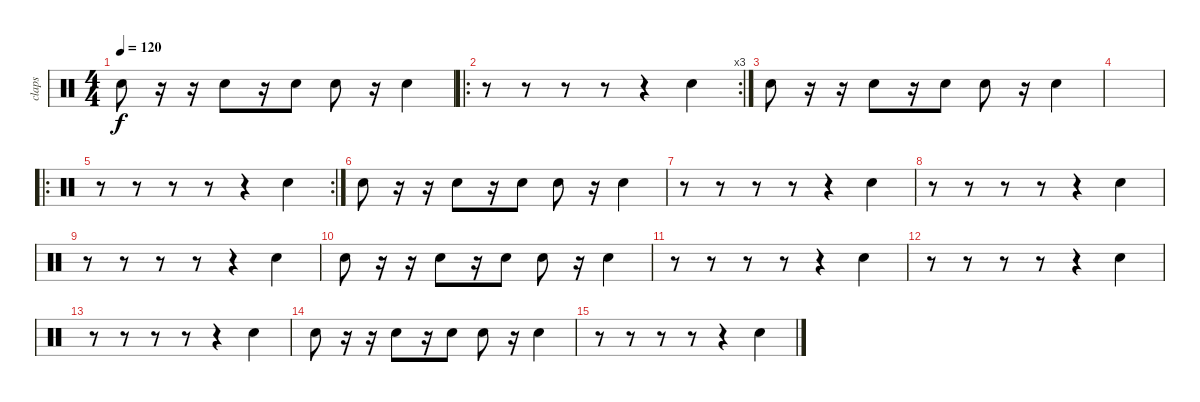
\track ("claps" "claps") {instrument percussion}
\staff {score}
\articulation defaults
\ts (4 4)
\tempo 120
\clef neutral
\ks c "Hand Clap (hit)".8{dy f}
r.16 r.16 "Hand Clap (hit)".8 r.16 "Hand Clap (hit)".8 "Hand Clap (hit)".8 r.16 "Hand Clap (hit)".4 |
\ro
\rc 3
r.8 r.8 r.8 r.8 r.4 "Hand Clap (hit)".4 |
"Hand Clap (hit)".8 r.16 r.16 "Hand Clap (hit)".8 r.16 "Hand Clap (hit)".8 "Hand Clap (hit)".8 r.16 "Hand Clap (hit)".4 |
|
\ro
\rc 2
r.8 r.8 r.8 r.8 r.4 "Hand Clap (hit)".4 |
"Hand Clap (hit)".8 r.16 r.16 "Hand Clap (hit)".8 r.16 "Hand Clap (hit)".8 "Hand Clap (hit)".8 r.16 "Hand Clap (hit)".4 |
r.8 r.8 r.8 r.8 r.4 "Hand Clap (hit)".4 |
r.8 r.8 r.8 r.8 r.4 "Hand Clap (hit)".4 |
r.8 r.8 r.8 r.8 r.4 "Hand Clap (hit)".4 |
"Hand Clap (hit)".8 r.16 r.16 "Hand Clap (hit)".8 r.16 "Hand Clap (hit)".8 "Hand Clap (hit)".8 r.16 "Hand Clap (hit)".4 |
r.8 r.8 r.8 r.8 r.4 "Hand Clap (hit)".4 |
r.8 r.8 r.8 r.8 r.4 "Hand Clap (hit)".4 |
r.8 r.8 r.8 r.8 r.4 "Hand Clap (hit)".4 |
"Hand Clap (hit)".8 r.16 r.16 "Hand Clap (hit)".8 r.16 "Hand Clap (hit)".8 "Hand Clap (hit)".8 r.16 "Hand Clap (hit)".4 |
r.8 r.8 r.8 r.8 r.4 "Hand Clap (hit)".4
